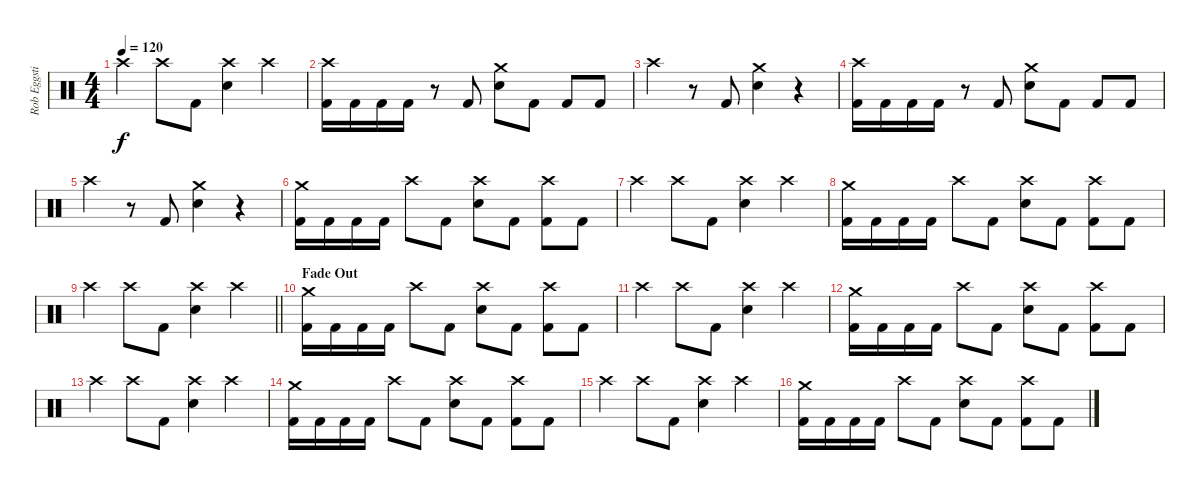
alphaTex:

\track ("Rob Eggstick" "Rob Eggsti") {instrument percussion}
\staff {score}
\articulation defaults
\ts (4 4)
\tempo 120
\clef neutral
\ks c "Crash high (hit)".4{dy f} "Crash high (hit)".8 "Kick (hit) 2".8
("Crash high (hit)" "Electric Snare (hit)").4 "Crash high (hit)".4 |
("Crash high (hit)" "Kick (hit) 2").16 "Kick (hit) 2".16 "Kick (hit) 2".16 "Kick (hit) 2".16 r.8 "Kick (hit) 2".8 ("Crash medium (hit)" "Electric Snare (hit)").8 "Kick (hit) 2".8 "Kick (hit) 2".8 "Kick (hit) 2".8 |
"Crash high (hit)".4 r.8 "Kick (hit) 2".8 ("Crash medium (hit)" "Electric Snare (hit)").4 r.4 |
("Crash high (hit)" "Kick (hit) 2").16 "Kick (hit) 2".16 "Kick (hit) 2".16 "Kick (hit) 2".16 r.8 "Kick (hit) 2".8 ("Crash medium (hit)" "Electric Snare (hit)").8 "Kick (hit) 2".8 "Kick (hit) 2".8 "Kick (hit) 2".8 |
"Crash high (hit)".4 r.8 "Kick (hit) 2".8 ("Crash medium (hit)" "Electric Snare (hit)").4 r.4 |
("Crash medium (hit)" "Kick (hit) 2").16 "Kick (hit) 2".16 "Kick (hit) 2".16 "Kick (hit) 2".16 "Crash high (hit)".8 "Kick (hit) 2".8 ("Crash high (hit)" "Electric Snare (hit)").8 "Kick (hit) 2".8 ("Crash high (hit)" "Kick (hit) 2").8 "Kick (hit) 2".8 |
"Crash high (hit)".4 "Crash high (hit)".8 "Kick (hit) 2".8 ("Crash high (hit)" "Electric Snare (hit)").4 "Crash high (hit)".4 |
("Crash medium (hit)" "Kick (hit) 2").16 "Kick (hit) 2".16 "Kick (hit) 2".16 "Kick (hit) 2".16 "Crash high (hit)".8 "Kick (hit) 2".8 ("Crash high (hit)" "Electric Snare (hit)").8 "Kick (hit) 2".8 ("Crash high (hit)" "Kick (hit) 2").8 "Kick (hit) 2".8 |
\barLineRight lightlight "Crash high (hit)".4 "Crash high (hit)".8 "Kick (hit) 2".8
("Crash high (hit)" "Electric Snare (hit)").4 "Crash high (hit)".4 |
\section ("" "Fade Out")
("Crash medium (hit)" "Kick (hit) 2").16{volume 12} "Kick (hit) 2".16 "Kick (hit) 2".16 "Kick (hit) 2".16 "Crash high (hit)".8 "Kick (hit) 2".8 ("Crash high (hit)" "Electric Snare (hit)").8 "Kick (hit) 2".8 ("Crash high (hit)" "Kick (hit) 2").8 "Kick (hit) 2".8 |
"Crash high (hit)".4 "Crash high (hit)".8 "Kick (hit) 2".8 ("Crash high (hit)" "Electric Snare (hit)").4 "Crash high (hit)".4 |
("Crash medium (hit)" "Kick (hit) 2").16 "Kick (hit) 2".16 "Kick (hit) 2".16 "Kick (hit) 2".16 "Crash high (hit)".8 "Kick (hit) 2".8 ("Crash high (hit)" "Electric Snare (hit)").8 "Kick (hit) 2".8 ("Crash high (hit)" "Kick (hit) 2").8 "Kick (hit) 2".8 |
"Crash high (hit)".4 "Crash high (hit)".8 "Kick (hit) 2".8 ("Crash high (hit)" "Electric Snare (hit)").4 "Crash high (hit)".4 |
("Crash medium (hit)" "Kick (hit) 2").16{volume 8} "Kick (hit) 2".16 "Kick (hit) 2".16 "Kick (hit) 2".16 "Crash high (hit)".8 "Kick (hit) 2".8 ("Crash high (hit)" "Electric Snare (hit)").8 "Kick (hit) 2".8 ("Crash high (hit)" "Kick (hit) 2").8 "Kick (hit) 2".8 |
"Crash high (hit)".4 "Crash high (hit)".8 "Kick (hit) 2".8 ("Crash high (hit)" "Electric Snare (hit)").4 "Crash high (hit)".4 |
("Crash medium (hit)" "Kick (hit) 2").16 "Kick (hit) 2".16 "Kick (hit) 2".16 "Kick (hit) 2".16 "Crash high (hit)".8 "Kick (hit) 2".8 ("Crash high (hit)" "Electric Snare (hit)").8 "Kick (hit) 2".8 ("Crash high (hit)" "Kick (hit) 2").8 "Kick (hit) 2".8
